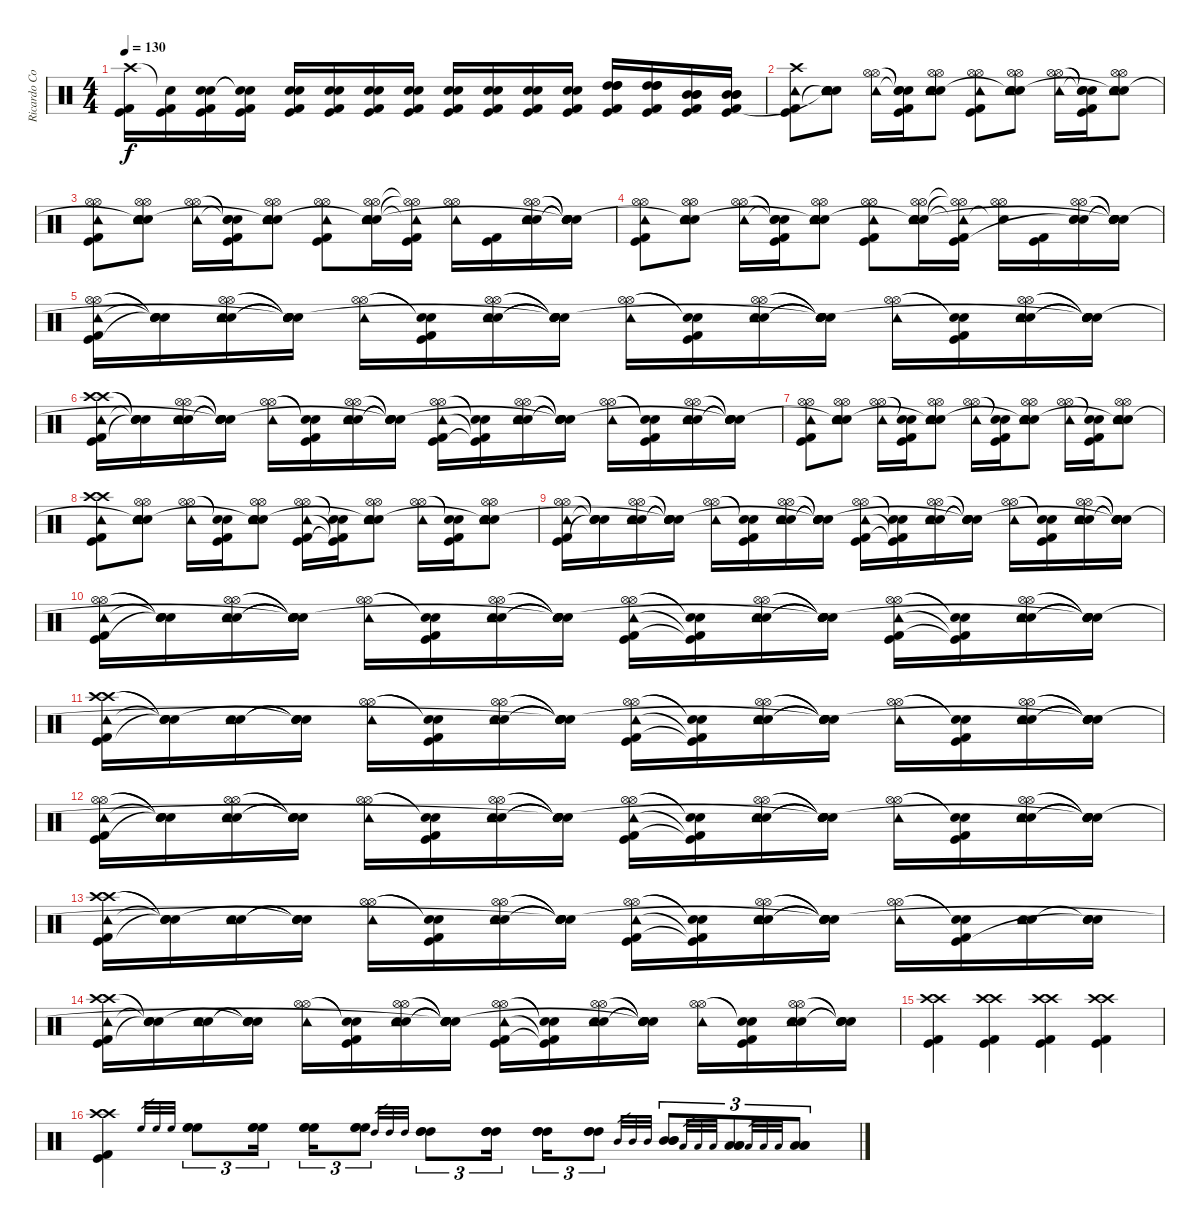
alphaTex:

\track ("Ricardo Confessori" "Ricardo Co") {instrument percussion}
\staff {score}
\articulation defaults
\ts (4 4)
\tempo 130
\clef neutral
\ks c
("Crash high (hit)" "Kick (hit)" "Kick (hit) 2").16{dy f} ("Snare (hit)"{t} "Kick (hit)" "Kick (hit) 2").16 ("Electric Snare (hit)" "Snare (hit) 2" "Kick (hit)" "Kick (hit) 2").16 ("Snare (hit)"{t} "Snare (hit)"{t} "Kick (hit)" "Kick (hit) 2").16 ("Electric Snare (hit)" "Snare (hit) 2" "Kick (hit)" "Kick (hit) 2").16 ("Electric Snare (hit)" "Snare (hit) 2" "Kick (hit)" "Kick (hit) 2").16 ("Electric Snare (hit)" "Snare (hit) 2" "Kick (hit)" "Kick (hit) 2").16 ("Electric Snare (hit)" "Snare (hit) 2" "Kick (hit)" "Kick (hit) 2").16 ("Electric Snare (hit)" "Snare (hit) 2" "Kick (hit)" "Kick (hit) 2").16 ("Electric Snare (hit)" "Snare (hit) 2" "Kick (hit)" "Kick (hit) 2").16 ("Electric Snare (hit)" "Snare (hit) 2" "Kick (hit)" "Kick (hit) 2").16 ("Electric Snare (hit)" "Snare (hit) 2" "Kick (hit)" "Kick (hit) 2").16 ("High Tom (hit)" "High Tom (hit)" "High Tom (hit)" "Kick (hit)" "Kick (hit) 2").16 ("High Tom (hit)" "High Tom (hit)" "High Tom (hit)" "Kick (hit)" "Kick (hit) 2").16 ("Mid Tom (hit)" "Mid Tom (hit)" "Mid Tom (hit)" "Kick (hit)" "Kick (hit) 2").16 ("Mid Tom (hit)" "Mid Tom (hit)" "Mid Tom (hit)" "Kick (hit)" "Kick (hit) 2").16 |
("Crash high (hit)" "Tambourine (hit)" "Kick (hit)" "Kick (hit) 2").8 ("Electric Snare (hit)" "Snare (hit) 2" "Tambourine (hit)" "Snare (hit)"{t} "Snare (hit)"{t}).8 ("Hi-Hat (open)" "Hi-Hat (open)" "Tambourine (hit)").16 ("Snare (hit)"{t} "Snare (hit)"{t} "Snare (hit)"{t} "Kick (hit)" "Kick (hit) 2").16 ("Hi-Hat (open)" "Electric Snare (hit)" "Snare (hit) 2" "Tambourine (hit)" "Hi-Hat (open)" "Snare (hit)").8 ("Hi-Hat (open)" "Hi-Hat (open)" "Tambourine (hit)" "Kick (hit)" "Kick (hit) 2").8 ("Hi-Hat (open)" "Electric Snare (hit)" "Snare (hit) 2" "Tambourine (hit)" "Hi-Hat (open)" "Snare (hit)"{t}).8 ("Hi-Hat (open)" "Hi-Hat (open)" "Tambourine (hit)").16 ("Snare (hit)"{t} "Snare (hit)"{t} "Snare (hit)"{t} "Kick (hit) 2" "Kick (hit)").16 ("Hi-Hat (open)" "Electric Snare (hit)" "Snare (hit) 2" "Tambourine (hit)" "Hi-Hat (open)" "Snare (hit)"{t}).8 |
("Hi-Hat (open)" "Hi-Hat (open)" "Tambourine (hit)" "Kick (hit)" "Kick (hit) 2").8 ("Hi-Hat (open)" "Electric Snare (hit)" "Snare (hit) 2" "Tambourine (hit)" "Hi-Hat (open)" "Snare (hit)"{t}).8 ("Hi-Hat (open)" "Hi-Hat (open)" "Tambourine (hit)").16 ("Snare (hit)"{t} "Snare (hit)"{t} "Snare (hit)"{t} "Kick (hit)" "Kick (hit) 2").16 ("Hi-Hat (open)" "Electric Snare (hit)" "Snare (hit) 2" "Tambourine (hit)" "Hi-Hat (open)" "Snare (hit)"{t}).8 ("Hi-Hat (open)" "Hi-Hat (open)" "Tambourine (hit)" "Kick (hit)" "Kick (hit) 2").8 ("Hi-Hat (open)" "Electric Snare (hit)" "Snare (hit) 2" "Tambourine (hit)" "Hi-Hat (open)" "Snare (hit)"{t}).16 ("Hi-Hat (open)"{t} "Hi-Hat (open)"{t} "Tambourine (hit)"{t} "Kick (hit) 2" "Kick (hit)").16 ("Hi-Hat (open)" "Hi-Hat (open)" "Tambourine (hit)").16 ("Kick (hit)" "Kick (hit) 2").16 ("Electric Snare (hit)" "Snare (hit) 2" "Hi-Hat (open)" "Hi-Hat (open)" "Tambourine (hit)").16 ("Snare (hit)"{t} "Snare (hit)"{t} "Snare (hit)"{t} "Snare (hit)"{t} "Snare (hit)"{t} "Snare (hit)"{t}).16 |
("Hi-Hat (open)" "Hi-Hat (open)" "Tambourine (hit)" "Kick (hit)" "Kick (hit) 2").8 ("Hi-Hat (open)" "Electric Snare (hit)" "Snare (hit) 2" "Tambourine (hit)" "Hi-Hat (open)" "Snare (hit)"{t}).8 ("Hi-Hat (open)" "Hi-Hat (open)" "Tambourine (hit)").16 ("Snare (hit)"{t} "Snare (hit)"{t} "Snare (hit)"{t} "Kick (hit)" "Kick (hit) 2").16 ("Hi-Hat (open)" "Electric Snare (hit)" "Snare (hit) 2" "Tambourine (hit)" "Hi-Hat (open)" "Snare (hit)"{t}).8 ("Hi-Hat (open)" "Hi-Hat (open)" "Tambourine (hit)" "Kick (hit)" "Kick (hit) 2").8 ("Hi-Hat (open)" "Electric Snare (hit)" "Snare (hit) 2" "Tambourine (hit)" "Hi-Hat (open)" "Snare (hit)"{t}).16 ("Hi-Hat (open)"{t} "Hi-Hat (open)"{t} "Tambourine (hit)"{t} "Kick (hit) 2" "Kick (hit)").16 ("Hi-Hat (open)" "Hi-Hat (open)" "Snare (hit)"{t}).16 ("Kick (hit)" "Kick (hit) 2").16 ("Electric Snare (hit)" "Snare (hit) 2" "Hi-Hat (open)" "Hi-Hat (open)" "Snare (hit)"{t}).16 ("Snare (hit)"{t} "Snare (hit)"{t} "Snare (hit)"{t} "Snare (hit)"{t} "Snare (hit)"{t} "Snare (hit)"{t}).16 |
("Hi-Hat (open)" "Hi-Hat (open)" "Tambourine (hit)" "Kick (hit)" "Kick (hit) 2").16 ("Snare (hit)"{t} "Snare (hit)"{t} "Snare (hit)"{t} "Snare (hit)"{t}).16 ("Hi-Hat (open)" "Hi-Hat (open)" "Electric Snare (hit)" "Snare (hit) 2" "Tambourine (hit)").16 ("Snare (hit)"{t} "Snare (hit)"{t} "Snare (hit)"{t} "Snare (hit)"{t} "Snare (hit)"{t} "Snare (hit)"{t}).16 ("Hi-Hat (open)" "Hi-Hat (open)" "Tambourine (hit)").16 ("Snare (hit)"{t} "Snare (hit)"{t} "Kick (hit)" "Kick (hit) 2").16 ("Hi-Hat (open)" "Hi-Hat (open)" "Electric Snare (hit)" "Snare (hit) 2" "Tambourine (hit)").16 ("Snare (hit)"{t} "Snare (hit)"{t} "Snare (hit)"{t} "Snare (hit)"{t} "Snare (hit)"{t} "Snare (hit)"{t}).16 ("Hi-Hat (open)" "Hi-Hat (open)" "Tambourine (hit)").16 ("Snare (hit)"{t} "Snare (hit)"{t} "Kick (hit) 2" "Kick (hit)").16 ("Hi-Hat (open)" "Electric Snare (hit)" "Snare (hit) 2" "Hi-Hat (open)" "Tambourine (hit)").16 ("Snare (hit)"{t} "Snare (hit)"{t} "Snare (hit)"{t} "Snare (hit)"{t} "Snare (hit)"{t} "Snare (hit)"{t}).16 ("Hi-Hat (open)" "Hi-Hat (open)" "Tambourine (hit)").16 ("Snare (hit)"{t} "Snare (hit)"{t} "Kick (hit)" "Kick (hit) 2").16 ("Hi-Hat (open)" "Hi-Hat (open)" "Electric Snare (hit)" "Snare (hit) 2" "Tambourine (hit)").16 ("Snare (hit)"{t} "Snare (hit)"{t} "Snare (hit)"{t} "Snare (hit)"{t} "Snare (hit)"{t} "Snare (hit)"{t}).16 |
("Crash high (hit)" "Crash high (hit)" "Tambourine (hit)" "Kick (hit)" "Kick (hit) 2").16 ("Snare (hit)"{t} "Snare (hit)"{t} "Snare (hit)"{t} "Snare (hit)"{t}).16 ("Hi-Hat (open)" "Hi-Hat (open)" "Electric Snare (hit)" "Snare (hit) 2" "Tambourine (hit)").16 ("Snare (hit)"{t} "Snare (hit)"{t} "Snare (hit)"{t} "Snare (hit)"{t} "Snare (hit)"{t} "Snare (hit)"{t}).16 ("Hi-Hat (open)" "Hi-Hat (open)" "Tambourine (hit)").16 ("Snare (hit)"{t} "Snare (hit)"{t} "Kick (hit)" "Kick (hit) 2").16 ("Hi-Hat (open)" "Hi-Hat (open)" "Electric Snare (hit)" "Snare (hit) 2" "Tambourine (hit)").16 ("Snare (hit)"{t} "Snare (hit)"{t} "Snare (hit)"{t} "Snare (hit)"{t} "Snare (hit)"{t} "Snare (hit)"{t}).16 ("Hi-Hat (open)" "Hi-Hat (open)" "Tambourine (hit)" "Kick (hit)" "Kick (hit) 2").16 ("Snare (hit)"{t} "Snare (hit)"{t} "Kick (hit) 2"{t} "Kick (hit)"{t}).16 ("Hi-Hat (open)" "Electric Snare (hit)" "Snare (hit) 2" "Hi-Hat (open)" "Tambourine (hit)").16 ("Snare (hit)"{t} "Snare (hit)"{t} "Snare (hit)"{t} "Snare (hit)"{t} "Snare (hit)"{t} "Snare (hit)"{t}).16 ("Hi-Hat (open)" "Hi-Hat (open)" "Tambourine (hit)").16 ("Snare (hit)"{t} "Snare (hit)"{t} "Kick (hit)" "Kick (hit) 2").16 ("Hi-Hat (open)" "Hi-Hat (open)" "Electric Snare (hit)" "Snare (hit) 2" "Tambourine (hit)").16 ("Snare (hit)"{t} "Snare (hit)"{t} "Snare (hit)"{t} "Snare (hit)"{t} "Snare (hit)"{t} "Snare (hit)"{t}).16 |
("Hi-Hat (open)" "Hi-Hat (open)" "Tambourine (hit)" "Kick (hit)" "Kick (hit) 2").8 ("Hi-Hat (open)" "Hi-Hat (open)" "Electric Snare (hit)" "Snare (hit) 2" "Tambourine (hit)" "Snare (hit)"{t}).8 ("Hi-Hat (open)" "Hi-Hat (open)" "Tambourine (hit)").16 ("Snare (hit)"{t} "Snare (hit)"{t} "Kick (hit)" "Kick (hit) 2").16 ("Hi-Hat (open)" "Hi-Hat (open)" "Electric Snare (hit)" "Snare (hit) 2" "Tambourine (hit)" "Snare (hit)"{t}).8 ("Hi-Hat (open)" "Hi-Hat (open)" "Tambourine (hit)").16 ("Snare (hit)"{t} "Snare (hit)"{t} "Kick (hit)" "Kick (hit) 2").16 ("Hi-Hat (open)" "Hi-Hat (open)" "Electric Snare (hit)" "Snare (hit) 2" "Tambourine (hit)" "Snare (hit)"{t}).8 ("Hi-Hat (open)" "Hi-Hat (open)" "Tambourine (hit)").16 ("Snare (hit)"{t} "Snare (hit)"{t} "Kick (hit)" "Kick (hit) 2").16 ("Hi-Hat (open)" "Hi-Hat (open)" "Electric Snare (hit)" "Snare (hit) 2" "Tambourine (hit)" "Snare (hit)"{t}).8 |
("Crash high (hit)" "Crash high (hit)" "Tambourine (hit)" "Kick (hit)" "Kick (hit) 2").8 ("Hi-Hat (open)" "Hi-Hat (open)" "Electric Snare (hit)" "Snare (hit) 2" "Tambourine (hit)" "Snare (hit)"{t}).8 ("Hi-Hat (open)" "Hi-Hat (open)" "Tambourine (hit)").16 ("Snare (hit)"{t} "Snare (hit)"{t} "Kick (hit)" "Kick (hit) 2").16 ("Hi-Hat (open)" "Hi-Hat (open)" "Electric Snare (hit)" "Snare (hit) 2" "Tambourine (hit)" "Snare (hit)"{t}).8 ("Hi-Hat (open)" "Hi-Hat (open)" "Tambourine (hit)" "Kick (hit)" "Kick (hit) 2").16 ("Snare (hit)"{t} "Snare (hit)"{t} "Kick (hit)"{t} "Kick (hit) 2"{t}).16 ("Hi-Hat (open)" "Hi-Hat (open)" "Electric Snare (hit)" "Snare (hit) 2" "Tambourine (hit)" "Snare (hit)"{t}).8 ("Hi-Hat (open)" "Hi-Hat (open)" "Tambourine (hit)").16 ("Snare (hit)"{t} "Snare (hit)"{t} "Kick (hit)" "Kick (hit) 2").16 ("Hi-Hat (open)" "Hi-Hat (open)" "Electric Snare (hit)" "Snare (hit) 2" "Tambourine (hit)" "Snare (hit)"{t}).8 |
("Hi-Hat (open)" "Hi-Hat (open)" "Tambourine (hit)" "Kick (hit)" "Kick (hit) 2").16 ("Snare (hit)"{t} "Snare (hit)"{t} "Snare (hit)"{t} "Snare (hit)"{t}).16 ("Hi-Hat (open)" "Hi-Hat (open)" "Electric Snare (hit)" "Snare (hit) 2" "Tambourine (hit)").16 ("Snare (hit)"{t} "Snare (hit)"{t} "Snare (hit)"{t} "Snare (hit)"{t} "Snare (hit)"{t} "Snare (hit)"{t}).16 ("Hi-Hat (open)" "Hi-Hat (open)" "Tambourine (hit)").16 ("Snare (hit)"{t} "Snare (hit)"{t} "Kick (hit)" "Kick (hit) 2").16 ("Hi-Hat (open)" "Hi-Hat (open)" "Electric Snare (hit)" "Snare (hit) 2" "Tambourine (hit)").16 ("Snare (hit)"{t} "Snare (hit)"{t} "Snare (hit)"{t} "Snare (hit)"{t} "Snare (hit)"{t} "Snare (hit)"{t}).16 ("Hi-Hat (open)" "Hi-Hat (open)" "Tambourine (hit)" "Kick (hit) 2" "Kick (hit)").16 ("Snare (hit)"{t} "Snare (hit)"{t} "Kick (hit) 2"{t} "Kick (hit)"{t}).16 ("Hi-Hat (open)" "Electric Snare (hit)" "Snare (hit) 2" "Hi-Hat (open)" "Tambourine (hit)").16 ("Snare (hit)"{t} "Snare (hit)"{t} "Snare (hit)"{t} "Snare (hit)"{t} "Snare (hit)"{t} "Snare (hit)"{t}).16 ("Hi-Hat (open)" "Hi-Hat (open)" "Tambourine (hit)").16 ("Snare (hit)"{t} "Snare (hit)"{t} "Kick (hit) 2" "Kick (hit)").16 ("Hi-Hat (open)" "Hi-Hat (open)" "Electric Snare (hit)" "Snare (hit) 2" "Tambourine (hit)").16 ("Snare (hit)"{t} "Snare (hit)"{t} "Snare (hit)"{t} "Snare (hit)"{t} "Snare (hit)"{t} "Snare (hit)"{t}).16 |
("Hi-Hat (open)" "Hi-Hat (open)" "Tambourine (hit)" "Kick (hit)" "Kick (hit) 2").16 ("Snare (hit)"{t} "Snare (hit)"{t} "Snare (hit)"{t} "Snare (hit)"{t}).16 ("Hi-Hat (open)" "Hi-Hat (open)" "Electric Snare (hit)" "Snare (hit) 2" "Tambourine (hit)").16 ("Snare (hit)"{t} "Snare (hit)"{t} "Snare (hit)"{t} "Snare (hit)"{t} "Snare (hit)"{t} "Snare (hit)"{t}).16 ("Hi-Hat (open)" "Hi-Hat (open)" "Tambourine (hit)").16 ("Snare (hit)"{t} "Snare (hit)"{t} "Kick (hit)" "Kick (hit) 2").16 ("Hi-Hat (open)" "Hi-Hat (open)" "Electric Snare (hit)" "Snare (hit) 2" "Tambourine (hit)").16 ("Snare (hit)"{t} "Snare (hit)"{t} "Snare (hit)"{t} "Snare (hit)"{t} "Snare (hit)"{t} "Snare (hit)"{t}).16 ("Hi-Hat (open)" "Hi-Hat (open)" "Tambourine (hit)" "Kick (hit) 2" "Kick (hit)").16 ("Snare (hit)"{t} "Snare (hit)"{t} "Kick (hit) 2"{t} "Kick (hit)"{t}).16 ("Hi-Hat (open)" "Electric Snare (hit)" "Snare (hit) 2" "Hi-Hat (open)" "Tambourine (hit)").16 ("Snare (hit)"{t} "Snare (hit)"{t} "Snare (hit)"{t} "Snare (hit)"{t} "Snare (hit)"{t} "Snare (hit)"{t}).16 ("Hi-Hat (open)" "Hi-Hat (open)" "Tambourine (hit)" "Kick (hit) 2" "Kick (hit)").16 ("Snare (hit)"{t} "Snare (hit)"{t} "Kick (hit) 2"{t} "Kick (hit)"{t}).16 ("Hi-Hat (open)" "Hi-Hat (open)" "Electric Snare (hit)" "Snare (hit) 2" "Tambourine (hit)").16 ("Snare (hit)"{t} "Snare (hit)"{t} "Snare (hit)"{t} "Snare (hit)"{t} "Snare (hit)"{t} "Snare (hit)"{t}).16 |
("Crash high (hit)" "Crash high (hit)" "Tambourine (hit)" "Kick (hit)" "Kick (hit) 2").16 ("Snare (hit)"{t} "Snare (hit)"{t} "Snare (hit)"{t} "Snare (hit)"{t}).16 ("Electric Snare (hit)" "Snare (hit) 2" "Tambourine (hit)").16 ("Snare (hit)"{t} "Snare (hit)"{t} "Snare (hit)"{t} "Snare (hit)"{t}).16 ("Hi-Hat (open)" "Hi-Hat (open)" "Tambourine (hit)").16 ("Snare (hit)"{t} "Snare (hit)"{t} "Kick (hit)" "Kick (hit) 2").16 ("Hi-Hat (open)" "Hi-Hat (open)" "Electric Snare (hit)" "Snare (hit) 2" "Tambourine (hit)").16 ("Snare (hit)"{t} "Snare (hit)"{t} "Snare (hit)"{t} "Snare (hit)"{t} "Snare (hit)"{t} "Snare (hit)"{t}).16 ("Hi-Hat (open)" "Hi-Hat (open)" "Tambourine (hit)" "Kick (hit) 2" "Kick (hit)").16 ("Snare (hit)"{t} "Snare (hit)"{t} "Kick (hit) 2"{t} "Kick (hit)"{t}).16 ("Hi-Hat (open)" "Electric Snare (hit)" "Snare (hit) 2" "Hi-Hat (open)" "Tambourine (hit)").16 ("Snare (hit)"{t} "Snare (hit)"{t} "Snare (hit)"{t} "Snare (hit)"{t} "Snare (hit)"{t} "Snare (hit)"{t}).16 ("Hi-Hat (open)" "Hi-Hat (open)" "Tambourine (hit)").16 ("Snare (hit)"{t} "Snare (hit)"{t} "Kick (hit) 2" "Kick (hit)").16 ("Hi-Hat (open)" "Hi-Hat (open)" "Electric Snare (hit)" "Snare (hit) 2" "Tambourine (hit)").16 ("Snare (hit)"{t} "Snare (hit)"{t} "Snare (hit)"{t} "Snare (hit)"{t} "Snare (hit)"{t} "Snare (hit)"{t}).16 |
("Hi-Hat (open)" "Hi-Hat (open)" "Tambourine (hit)" "Kick (hit)" "Kick (hit) 2").16 ("Snare (hit)"{t} "Snare (hit)"{t} "Snare (hit)"{t} "Snare (hit)"{t}).16 ("Hi-Hat (open)" "Hi-Hat (open)" "Electric Snare (hit)" "Snare (hit) 2" "Tambourine (hit)").16 ("Snare (hit)"{t} "Snare (hit)"{t} "Snare (hit)"{t} "Snare (hit)"{t}).16 ("Hi-Hat (open)" "Hi-Hat (open)" "Tambourine (hit)").16 ("Snare (hit)"{t} "Snare (hit)"{t} "Kick (hit)" "Kick (hit) 2").16 ("Hi-Hat (open)" "Hi-Hat (open)" "Electric Snare (hit)" "Snare (hit) 2" "Tambourine (hit)").16 ("Snare (hit)"{t} "Snare (hit)"{t} "Snare (hit)"{t} "Snare (hit)"{t} "Snare (hit)"{t} "Snare (hit)"{t}).16 ("Hi-Hat (open)" "Hi-Hat (open)" "Tambourine (hit)" "Kick (hit) 2" "Kick (hit)").16 ("Snare (hit)"{t} "Snare (hit)"{t} "Kick (hit) 2"{t} "Kick (hit)"{t}).16 ("Hi-Hat (open)" "Electric Snare (hit)" "Snare (hit) 2" "Hi-Hat (open)" "Tambourine (hit)").16 ("Snare (hit)"{t} "Snare (hit)"{t} "Snare (hit)"{t} "Snare (hit)"{t} "Snare (hit)"{t} "Snare (hit)"{t}).16 ("Hi-Hat (open)" "Hi-Hat (open)" "Tambourine (hit)").16 ("Snare (hit)"{t} "Snare (hit)"{t} "Kick (hit) 2" "Kick (hit)").16 ("Hi-Hat (open)" "Hi-Hat (open)" "Electric Snare (hit)" "Snare (hit) 2" "Tambourine (hit)").16 ("Snare (hit)"{t} "Snare (hit)"{t} "Snare (hit)"{t} "Snare (hit)"{t} "Snare (hit)"{t} "Snare (hit)"{t}).16 |
("Crash high (hit)" "Crash high (hit)" "Tambourine (hit)" "Kick (hit)" "Kick (hit) 2").16 ("Snare (hit)"{t} "Snare (hit)"{t} "Snare (hit)"{t} "Snare (hit)"{t}).16 ("Electric Snare (hit)" "Snare (hit) 2" "Tambourine (hit)").16 ("Snare (hit)"{t} "Snare (hit)"{t} "Snare (hit)"{t} "Snare (hit)"{t}).16 ("Hi-Hat (open)" "Hi-Hat (open)" "Tambourine (hit)").16 ("Snare (hit)"{t} "Snare (hit)"{t} "Kick (hit)" "Kick (hit) 2").16 ("Hi-Hat (open)" "Hi-Hat (open)" "Electric Snare (hit)" "Snare (hit) 2" "Tambourine (hit)").16 ("Snare (hit)"{t} "Snare (hit)"{t} "Snare (hit)"{t} "Snare (hit)"{t} "Snare (hit)"{t} "Snare (hit)"{t}).16 ("Hi-Hat (open)" "Hi-Hat (open)" "Tambourine (hit)" "Kick (hit) 2" "Kick (hit)").16 ("Snare (hit)"{t} "Snare (hit)"{t} "Kick (hit) 2"{t} "Kick (hit)"{t}).16 ("Hi-Hat (open)" "Electric Snare (hit)" "Snare (hit) 2" "Hi-Hat (open)" "Tambourine (hit)").16 ("Snare (hit)"{t} "Snare (hit)"{t} "Snare (hit)"{t} "Snare (hit)"{t} "Snare (hit)"{t} "Snare (hit)"{t}).16 ("Hi-Hat (open)" "Hi-Hat (open)" "Tambourine (hit)").16 ("Snare (hit)"{t} "Snare (hit)"{t} "Kick (hit) 2" "Kick (hit)").16 ("Electric Snare (hit)" "Snare (hit) 2" "Tambourine (hit)").16 ("Electric Snare (hit)" "Snare (hit) 2" "Snare (hit)"{t} "Snare (hit)"{t}).16 |
("Crash high (hit)" "Crash high (hit)" "Tambourine (hit)" "Kick (hit)" "Kick (hit) 2").16 ("Snare (hit)"{t} "Snare (hit)"{t} "Snare (hit)"{t} "Snare (hit)"{t}).16 ("Electric Snare (hit)" "Snare (hit) 2" "Tambourine (hit)").16 ("Snare (hit)"{t} "Snare (hit)"{t} "Snare (hit)"{t} "Snare (hit)"{t}).16 ("Hi-Hat (open)" "Hi-Hat (open)" "Tambourine (hit)").16 ("Snare (hit)"{t} "Snare (hit)"{t} "Kick (hit)" "Kick (hit) 2").16 ("Hi-Hat (open)" "Hi-Hat (open)" "Electric Snare (hit)" "Snare (hit) 2" "Tambourine (hit)").16 ("Snare (hit)"{t} "Snare (hit)"{t} "Snare (hit)"{t} "Snare (hit)"{t} "Snare (hit)"{t} "Snare (hit)"{t}).16 ("Hi-Hat (open)" "Hi-Hat (open)" "Tambourine (hit)" "Kick (hit) 2" "Kick (hit)").16 ("Snare (hit)"{t} "Snare (hit)"{t} "Kick (hit) 2"{t} "Kick (hit)"{t}).16 ("Hi-Hat (open)" "Electric Snare (hit)" "Snare (hit) 2" "Hi-Hat (open)" "Tambourine (hit)").16 ("Snare (hit)"{t} "Snare (hit)"{t} "Snare (hit)"{t} "Snare (hit)"{t} "Snare (hit)"{t} "Snare (hit)"{t}).16 ("Hi-Hat (open)" "Hi-Hat (open)" "Tambourine (hit)").16 ("Snare (hit)"{t} "Snare (hit)"{t} "Kick (hit) 2" "Kick (hit)").16 ("Hi-Hat (open)" "Hi-Hat (open)" "Electric Snare (hit)" "Snare (hit) 2" "Tambourine (hit)").16 ("Electric Snare (hit)"{t} "Snare (hit) 2"{t} "Snare (hit)"{t} "Snare (hit)"{t}).16 |
("Crash high (hit)" "Crash high (hit)" "Kick (hit)" "Kick (hit) 2").4 ("Crash high (hit)" "Crash high (hit)" "Kick (hit)" "Kick (hit) 2").4 ("Crash high (hit)" "Crash high (hit)" "Kick (hit)" "Kick (hit) 2").4 ("Crash high (hit)" "Crash high (hit)" "Kick (hit)" "Kick (hit) 2").4 |
("Crash high (hit)" "Crash high (hit)" "Kick (hit)" "Kick (hit) 2").4 "High Floor Tom (hit)".32{gr} "High Floor Tom (hit)".32{gr} "High Floor Tom (hit)".32{gr} ("High Floor Tom (hit)" "High Floor Tom (hit)" "High Floor Tom (hit)").8{tu (3 2)} ("High Floor Tom (hit)" "High Floor Tom (hit)" "High Floor Tom (hit)").16{tu (3 2)} ("High Floor Tom (hit)" "High Floor Tom (hit)" "High Floor Tom (hit)").16{tu (3 2)} ("High Floor Tom (hit)" "High Floor Tom (hit)" "High Floor Tom (hit)").8{tu (3 2)} "High Tom (hit)".32{gr} "High Tom (hit)".32{gr} "High Tom (hit)".32{gr} ("High Tom (hit)" "High Tom (hit)" "High Tom (hit)").8{tu (3 2)} ("High Tom (hit)" "High Tom (hit)" "High Tom (hit)").16{tu (3 2)} ("High Tom (hit)" "High Tom (hit)" "High Tom (hit)").16{tu (3 2)} ("High Tom (hit)" "High Tom (hit)" "High Tom (hit)").8{tu (3 2)} "Mid Tom (hit)".32{gr} "Mid Tom (hit)".32{gr} "Mid Tom (hit)".32{gr} ("Mid Tom (hit)" "Mid Tom (hit)" "Mid Tom (hit)").8{tu (3 2)} "Low Tom (hit)".32{gr} "Low Tom (hit)".32{gr} "Low Tom (hit)".32{gr} ("Low Tom (hit)" "Low Tom (hit)" "Low Tom (hit)").8{tu (3 2)} "Low Tom (hit)".32{gr} "Low Tom (hit)".32{gr} "Low Tom (hit)".32{gr} ("Low Tom (hit)" "Low Tom (hit)" "Low Tom (hit)").8{tu (3 2)}
